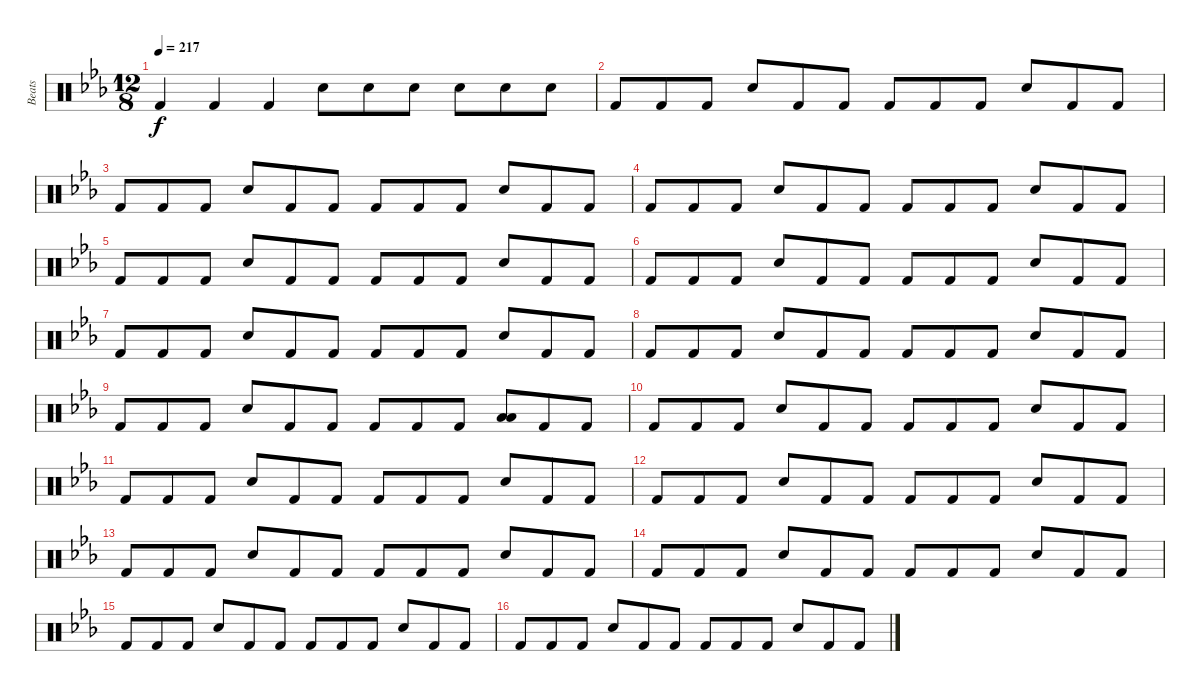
\track ("Beats" "Beats") {instrument percussion}
\staff {score}
\articulation defaults
\ts (12 8)
\tempo 217
\clef neutral
\ks eb "Kick (hit) 2".4{dy f} "Kick (hit) 2".4 "Kick (hit) 2".4 "Snare (hit) 2".8 "Snare (hit) 2".8 "Snare (hit) 2".8 "Snare (hit) 2".8 "Snare (hit) 2".8 "Snare (hit) 2".8
|
"Kick (hit) 2".8 "Kick (hit) 2".8 "Kick (hit) 2".8 "Snare (hit) 2".8 "Kick (hit) 2".8 "Kick (hit) 2".8 "Kick (hit) 2".8 "Kick (hit) 2".8 "Kick (hit) 2".8 "Snare (hit) 2".8 "Kick (hit) 2".8 "Kick (hit) 2".8 |
"Kick (hit) 2".8 "Kick (hit) 2".8 "Kick (hit) 2".8 "Snare (hit) 2".8 "Kick (hit) 2".8 "Kick (hit) 2".8 "Kick (hit) 2".8 "Kick (hit) 2".8 "Kick (hit) 2".8 "Snare (hit) 2".8 "Kick (hit) 2".8 "Kick (hit) 2".8 |
"Kick (hit) 2".8 "Kick (hit) 2".8 "Kick (hit) 2".8 "Snare (hit) 2".8 "Kick (hit) 2".8 "Kick (hit) 2".8 "Kick (hit) 2".8 "Kick (hit) 2".8 "Kick (hit) 2".8 "Snare (hit) 2".8 "Kick (hit) 2".8 "Kick (hit) 2".8 |
"Kick (hit) 2".8 "Kick (hit) 2".8 "Kick (hit) 2".8 "Snare (hit) 2".8 "Kick (hit) 2".8 "Kick (hit) 2".8 "Kick (hit) 2".8 "Kick (hit) 2".8 "Kick (hit) 2".8 "Snare (hit) 2".8 "Kick (hit) 2".8 "Kick (hit) 2".8 |
"Kick (hit) 2".8 "Kick (hit) 2".8 "Kick (hit) 2".8 "Snare (hit) 2".8 "Kick (hit) 2".8 "Kick (hit) 2".8 "Kick (hit) 2".8 "Kick (hit) 2".8 "Kick (hit) 2".8 "Snare (hit) 2".8 "Kick (hit) 2".8 "Kick (hit) 2".8 |
"Kick (hit) 2".8 "Kick (hit) 2".8 "Kick (hit) 2".8 "Snare (hit) 2".8 "Kick (hit) 2".8 "Kick (hit) 2".8 "Kick (hit) 2".8 "Kick (hit) 2".8 "Kick (hit) 2".8 "Snare (hit) 2".8 "Kick (hit) 2".8 "Kick (hit) 2".8 |
"Kick (hit) 2".8 "Kick (hit) 2".8 "Kick (hit) 2".8 "Snare (hit) 2".8 "Kick (hit) 2".8 "Kick (hit) 2".8 "Kick (hit) 2".8 "Kick (hit) 2".8 "Kick (hit) 2".8 "Snare (hit) 2".8 "Kick (hit) 2".8 "Kick (hit) 2".8 |
"Kick (hit) 2".8 "Kick (hit) 2".8 "Kick (hit) 2".8 "Snare (hit) 2".8 "Kick (hit) 2".8 "Kick (hit) 2".8 "Kick (hit) 2".8 "Kick (hit) 2".8 "Kick (hit) 2".8 ("Low Tom (hit)" "Low Tom (hit)").8 "Kick (hit) 2".8 "Kick (hit) 2".8 |
"Kick (hit) 2".8 "Kick (hit) 2".8 "Kick (hit) 2".8 "Snare (hit) 2".8 "Kick (hit) 2".8 "Kick (hit) 2".8 "Kick (hit) 2".8 "Kick (hit) 2".8 "Kick (hit) 2".8 "Snare (hit) 2".8 "Kick (hit) 2".8 "Kick (hit) 2".8 |
"Kick (hit) 2".8 "Kick (hit) 2".8 "Kick (hit) 2".8 "Snare (hit) 2".8 "Kick (hit) 2".8 "Kick (hit) 2".8 "Kick (hit) 2".8 "Kick (hit) 2".8 "Kick (hit) 2".8 "Snare (hit) 2".8 "Kick (hit) 2".8 "Kick (hit) 2".8 |
"Kick (hit) 2".8 "Kick (hit) 2".8 "Kick (hit) 2".8 "Snare (hit) 2".8 "Kick (hit) 2".8 "Kick (hit) 2".8 "Kick (hit) 2".8 "Kick (hit) 2".8 "Kick (hit) 2".8 "Snare (hit) 2".8 "Kick (hit) 2".8 "Kick (hit) 2".8 |
"Kick (hit) 2".8 "Kick (hit) 2".8 "Kick (hit) 2".8 "Snare (hit) 2".8 "Kick (hit) 2".8 "Kick (hit) 2".8 "Kick (hit) 2".8 "Kick (hit) 2".8 "Kick (hit) 2".8 "Snare (hit) 2".8 "Kick (hit) 2".8 "Kick (hit) 2".8 |
"Kick (hit) 2".8 "Kick (hit) 2".8 "Kick (hit) 2".8 "Snare (hit) 2".8 "Kick (hit) 2".8 "Kick (hit) 2".8 "Kick (hit) 2".8 "Kick (hit) 2".8 "Kick (hit) 2".8 "Snare (hit) 2".8 "Kick (hit) 2".8 "Kick (hit) 2".8 |
"Kick (hit) 2".8 "Kick (hit) 2".8 "Kick (hit) 2".8 "Snare (hit) 2".8 "Kick (hit) 2".8 "Kick (hit) 2".8 "Kick (hit) 2".8 "Kick (hit) 2".8 "Kick (hit) 2".8 "Snare (hit) 2".8 "Kick (hit) 2".8 "Kick (hit) 2".8 |
"Kick (hit) 2".8 "Kick (hit) 2".8 "Kick (hit) 2".8 "Snare (hit) 2".8 "Kick (hit) 2".8 "Kick (hit) 2".8 "Kick (hit) 2".8 "Kick (hit) 2".8 "Kick (hit) 2".8 "Snare (hit) 2".8 "Kick (hit) 2".8 "Kick (hit) 2".8
